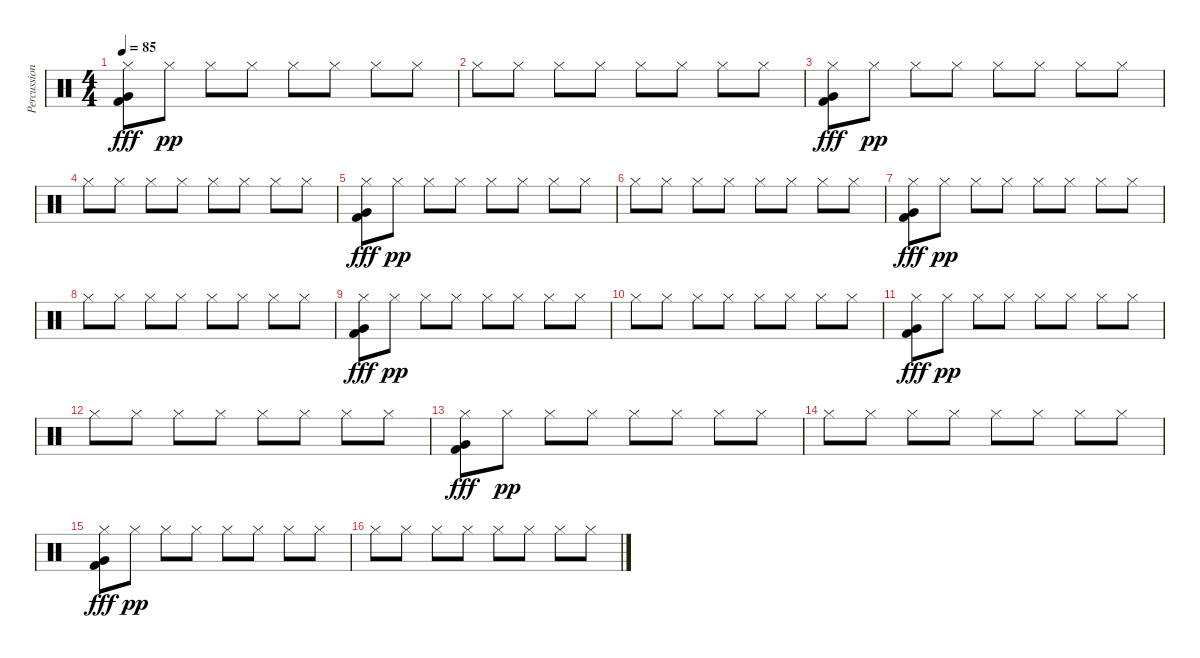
\track ("Percussion" "Percussion") {instrument percussion}
\staff {score}
\articulation defaults
\ts (4 4)
\tempo 85
\clef neutral
\ks c
("Hi-Hat (closed)" "Very Low Tom (hit)" "Kick (hit) 2").8{dy fff} "Hi-Hat (closed)".8{dy pp} "Hi-Hat (closed)".8 "Hi-Hat (closed)".8 "Hi-Hat (closed)".8 "Hi-Hat (closed)".8 "Hi-Hat (closed)".8 "Hi-Hat (closed)".8 |
"Hi-Hat (closed)".8 "Hi-Hat (closed)".8 "Hi-Hat (closed)".8 "Hi-Hat (closed)".8 "Hi-Hat (closed)".8 "Hi-Hat (closed)".8 "Hi-Hat (closed)".8 "Hi-Hat (closed)".8 |
("Hi-Hat (closed)" "Very Low Tom (hit)" "Kick (hit) 2").8{dy fff} "Hi-Hat (closed)".8{dy pp} "Hi-Hat (closed)".8 "Hi-Hat (closed)".8 "Hi-Hat (closed)".8 "Hi-Hat (closed)".8 "Hi-Hat (closed)".8 "Hi-Hat (closed)".8 |
"Hi-Hat (closed)".8 "Hi-Hat (closed)".8 "Hi-Hat (closed)".8 "Hi-Hat (closed)".8 "Hi-Hat (closed)".8 "Hi-Hat (closed)".8 "Hi-Hat (closed)".8 "Hi-Hat (closed)".8 |
("Hi-Hat (closed)" "Very Low Tom (hit)" "Kick (hit) 2").8{dy fff} "Hi-Hat (closed)".8{dy pp} "Hi-Hat (closed)".8 "Hi-Hat (closed)".8 "Hi-Hat (closed)".8 "Hi-Hat (closed)".8 "Hi-Hat (closed)".8 "Hi-Hat (closed)".8 |
"Hi-Hat (closed)".8 "Hi-Hat (closed)".8 "Hi-Hat (closed)".8 "Hi-Hat (closed)".8 "Hi-Hat (closed)".8 "Hi-Hat (closed)".8 "Hi-Hat (closed)".8 "Hi-Hat (closed)".8 |
("Hi-Hat (closed)" "Very Low Tom (hit)" "Kick (hit) 2").8{dy fff} "Hi-Hat (closed)".8{dy pp} "Hi-Hat (closed)".8 "Hi-Hat (closed)".8 "Hi-Hat (closed)".8 "Hi-Hat (closed)".8 "Hi-Hat (closed)".8 "Hi-Hat (closed)".8 |
"Hi-Hat (closed)".8 "Hi-Hat (closed)".8 "Hi-Hat (closed)".8 "Hi-Hat (closed)".8 "Hi-Hat (closed)".8 "Hi-Hat (closed)".8 "Hi-Hat (closed)".8 "Hi-Hat (closed)".8 |
("Hi-Hat (closed)" "Very Low Tom (hit)" "Kick (hit) 2").8{dy fff} "Hi-Hat (closed)".8{dy pp} "Hi-Hat (closed)".8 "Hi-Hat (closed)".8 "Hi-Hat (closed)".8 "Hi-Hat (closed)".8 "Hi-Hat (closed)".8 "Hi-Hat (closed)".8 |
"Hi-Hat (closed)".8 "Hi-Hat (closed)".8 "Hi-Hat (closed)".8 "Hi-Hat (closed)".8 "Hi-Hat (closed)".8 "Hi-Hat (closed)".8 "Hi-Hat (closed)".8 "Hi-Hat (closed)".8 |
("Hi-Hat (closed)" "Very Low Tom (hit)" "Kick (hit) 2").8{dy fff} "Hi-Hat (closed)".8{dy pp} "Hi-Hat (closed)".8 "Hi-Hat (closed)".8 "Hi-Hat (closed)".8 "Hi-Hat (closed)".8 "Hi-Hat (closed)".8 "Hi-Hat (closed)".8 |
"Hi-Hat (closed)".8 "Hi-Hat (closed)".8 "Hi-Hat (closed)".8 "Hi-Hat (closed)".8 "Hi-Hat (closed)".8 "Hi-Hat (closed)".8 "Hi-Hat (closed)".8 "Hi-Hat (closed)".8 |
("Hi-Hat (closed)" "Very Low Tom (hit)" "Kick (hit) 2").8{dy fff} "Hi-Hat (closed)".8{dy pp} "Hi-Hat (closed)".8 "Hi-Hat (closed)".8 "Hi-Hat (closed)".8 "Hi-Hat (closed)".8 "Hi-Hat (closed)".8 "Hi-Hat (closed)".8 |
"Hi-Hat (closed)".8 "Hi-Hat (closed)".8 "Hi-Hat (closed)".8 "Hi-Hat (closed)".8 "Hi-Hat (closed)".8 "Hi-Hat (closed)".8 "Hi-Hat (closed)".8 "Hi-Hat (closed)".8 |
("Hi-Hat (closed)" "Very Low Tom (hit)" "Kick (hit) 2").8{dy fff} "Hi-Hat (closed)".8{dy pp} "Hi-Hat (closed)".8 "Hi-Hat (closed)".8 "Hi-Hat (closed)".8 "Hi-Hat (closed)".8 "Hi-Hat (closed)".8 "Hi-Hat (closed)".8 |
"Hi-Hat (closed)".8 "Hi-Hat (closed)".8 "Hi-Hat (closed)".8 "Hi-Hat (closed)".8 "Hi-Hat (closed)".8 "Hi-Hat (closed)".8 "Hi-Hat (closed)".8 "Hi-Hat (closed)".8
